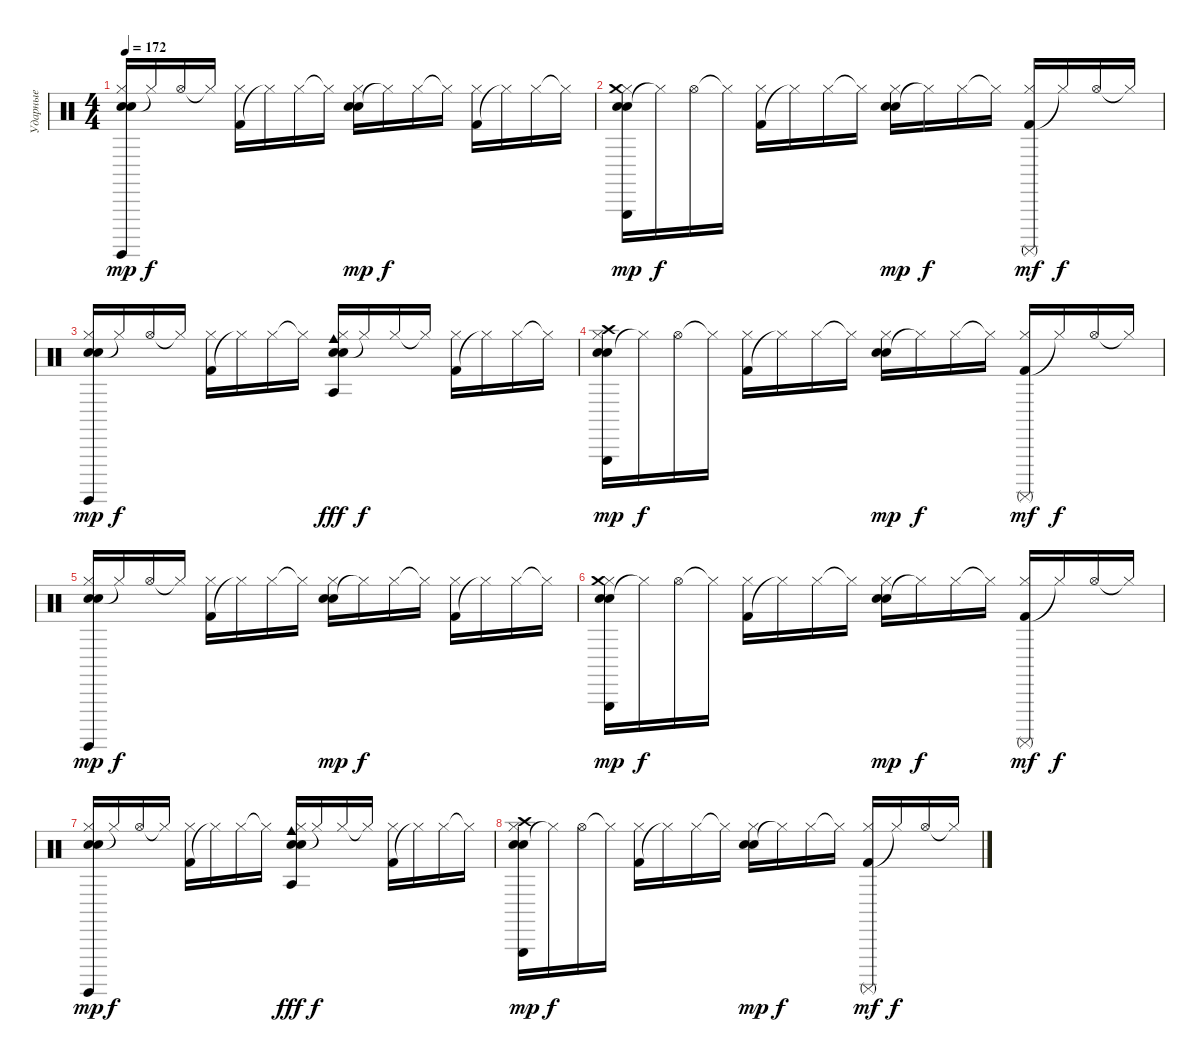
\track ("Ударные" "Ударные") {instrument percussion}
\staff {score}
\articulation defaults
\ts (4 4)
\tempo 172
\clef neutral
\ks c
("Snare (hit) 2" "Electric Snare (hit)" "Hi-Hat (closed)" "Surdo (hit)").16{dy mp} "Hi-Hat (closed)"{t}.16{dy f} "Hi-Hat (open)".16 "Hi-Hat (closed)"{t}.16 ("Kick (hit) 2" "Hi-Hat (closed)").16 "Hi-Hat (closed)"{t}.16 "Hi-Hat (closed)".16 "Hi-Hat (closed)"{t}.16 ("Snare (hit) 2" "Electric Snare (hit)" "Hi-Hat (closed)").16{dy mp} "Hi-Hat (closed)"{t}.16{dy f} "Hi-Hat (closed)".16 "Hi-Hat (closed)"{t}.16 ("Kick (hit) 2" "Hi-Hat (closed)").16 "Hi-Hat (closed)"{t}.16 "Hi-Hat (closed)".16 "Hi-Hat (closed)"{t}.16 |
("Snare (hit) 2" "Electric Snare (hit)" "Hi-Hat (closed)" "Triangle (hit)" "Crash medium (hit)").16{dy mp} "Hi-Hat (closed)"{t}.16{dy f} "Hi-Hat (open)".16 "Hi-Hat (closed)"{t}.16 ("Kick (hit) 2" "Hi-Hat (closed)").16 "Hi-Hat (closed)"{t}.16 "Hi-Hat (closed)".16 "Hi-Hat (closed)"{t}.16 ("Snare (hit) 2" "Electric Snare (hit)" "Hi-Hat (closed)").16{dy mp} "Hi-Hat (closed)"{t}.16{dy f} "Hi-Hat (closed)".16 "Hi-Hat (closed)"{t}.16 ("Kick (hit) 2" "Hi-Hat (closed)" "Surdo (mute)").16{dy mf} "Hi-Hat (closed)"{t}.16{dy f} "Hi-Hat (open)".16 "Hi-Hat (closed)"{t}.16 |
("Snare (hit) 2" "Electric Snare (hit)" "Hi-Hat (closed)" "Surdo (hit)").16{dy mp} "Hi-Hat (closed)"{t}.16{dy f} "Hi-Hat (open)".16 "Hi-Hat (closed)"{t}.16 ("Kick (hit) 2" "Hi-Hat (closed)").16 "Hi-Hat (closed)"{t}.16 "Hi-Hat (closed)".16 "Hi-Hat (closed)"{t}.16 ("Snare (hit) 2" "Electric Snare (hit)" "Hi-Hat (closed)" "Cowbell medium (hit)" "Agogo tow (hit)").16{dy fff} "Hi-Hat (closed)"{t}.16{dy f} "Hi-Hat (closed)".16 "Hi-Hat (closed)"{t}.16 ("Kick (hit) 2" "Hi-Hat (closed)").16 "Hi-Hat (closed)"{t}.16 "Hi-Hat (closed)".16 "Hi-Hat (closed)"{t}.16 |
("Snare (hit) 2" "Electric Snare (hit)" "Hi-Hat (closed)" "Triangle (hit)" "Crash high (hit)").16{dy mp} "Hi-Hat (closed)"{t}.16{dy f} "Hi-Hat (open)".16 "Hi-Hat (closed)"{t}.16 ("Kick (hit) 2" "Hi-Hat (closed)").16 "Hi-Hat (closed)"{t}.16 "Hi-Hat (closed)".16 "Hi-Hat (closed)"{t}.16 ("Snare (hit) 2" "Electric Snare (hit)" "Hi-Hat (closed)").16{dy mp} "Hi-Hat (closed)"{t}.16{dy f} "Hi-Hat (closed)".16 "Hi-Hat (closed)"{t}.16 ("Kick (hit) 2" "Hi-Hat (closed)" "Surdo (mute)").16{dy mf} "Hi-Hat (closed)"{t}.16{dy f} "Hi-Hat (open)".16 "Hi-Hat (closed)"{t}.16 |
("Snare (hit) 2" "Electric Snare (hit)" "Hi-Hat (closed)" "Surdo (hit)").16{dy mp} "Hi-Hat (closed)"{t}.16{dy f} "Hi-Hat (open)".16 "Hi-Hat (closed)"{t}.16 ("Kick (hit) 2" "Hi-Hat (closed)").16 "Hi-Hat (closed)"{t}.16 "Hi-Hat (closed)".16 "Hi-Hat (closed)"{t}.16 ("Snare (hit) 2" "Electric Snare (hit)" "Hi-Hat (closed)").16{dy mp} "Hi-Hat (closed)"{t}.16{dy f} "Hi-Hat (closed)".16 "Hi-Hat (closed)"{t}.16 ("Kick (hit) 2" "Hi-Hat (closed)").16 "Hi-Hat (closed)"{t}.16 "Hi-Hat (closed)".16 "Hi-Hat (closed)"{t}.16 |
("Snare (hit) 2" "Electric Snare (hit)" "Hi-Hat (closed)" "Triangle (hit)" "Crash medium (hit)").16{dy mp} "Hi-Hat (closed)"{t}.16{dy f} "Hi-Hat (open)".16 "Hi-Hat (closed)"{t}.16 ("Kick (hit) 2" "Hi-Hat (closed)").16 "Hi-Hat (closed)"{t}.16 "Hi-Hat (closed)".16 "Hi-Hat (closed)"{t}.16 ("Snare (hit) 2" "Electric Snare (hit)" "Hi-Hat (closed)").16{dy mp} "Hi-Hat (closed)"{t}.16{dy f} "Hi-Hat (closed)".16 "Hi-Hat (closed)"{t}.16 ("Kick (hit) 2" "Hi-Hat (closed)" "Surdo (mute)").16{dy mf} "Hi-Hat (closed)"{t}.16{dy f} "Hi-Hat (open)".16 "Hi-Hat (closed)"{t}.16 |
("Snare (hit) 2" "Electric Snare (hit)" "Hi-Hat (closed)" "Surdo (hit)").16{dy mp} "Hi-Hat (closed)"{t}.16{dy f} "Hi-Hat (open)".16 "Hi-Hat (closed)"{t}.16 ("Kick (hit) 2" "Hi-Hat (closed)").16 "Hi-Hat (closed)"{t}.16 "Hi-Hat (closed)".16 "Hi-Hat (closed)"{t}.16 ("Snare (hit) 2" "Electric Snare (hit)" "Hi-Hat (closed)" "Cowbell medium (hit)" "Agogo tow (hit)").16{dy fff} "Hi-Hat (closed)"{t}.16{dy f} "Hi-Hat (closed)".16 "Hi-Hat (closed)"{t}.16 ("Kick (hit) 2" "Hi-Hat (closed)").16 "Hi-Hat (closed)"{t}.16 "Hi-Hat (closed)".16 "Hi-Hat (closed)"{t}.16 |
("Snare (hit) 2" "Electric Snare (hit)" "Hi-Hat (closed)" "Triangle (hit)" "Crash high (hit)").16{dy mp} "Hi-Hat (closed)"{t}.16{dy f} "Hi-Hat (open)".16 "Hi-Hat (closed)"{t}.16 ("Kick (hit) 2" "Hi-Hat (closed)").16 "Hi-Hat (closed)"{t}.16 "Hi-Hat (closed)".16 "Hi-Hat (closed)"{t}.16 ("Snare (hit) 2" "Electric Snare (hit)" "Hi-Hat (closed)").16{dy mp} "Hi-Hat (closed)"{t}.16{dy f} "Hi-Hat (closed)".16 "Hi-Hat (closed)"{t}.16 ("Kick (hit) 2" "Hi-Hat (closed)" "Surdo (mute)").16{dy mf} "Hi-Hat (closed)"{t}.16{dy f} "Hi-Hat (open)".16 "Hi-Hat (closed)"{t}.16
